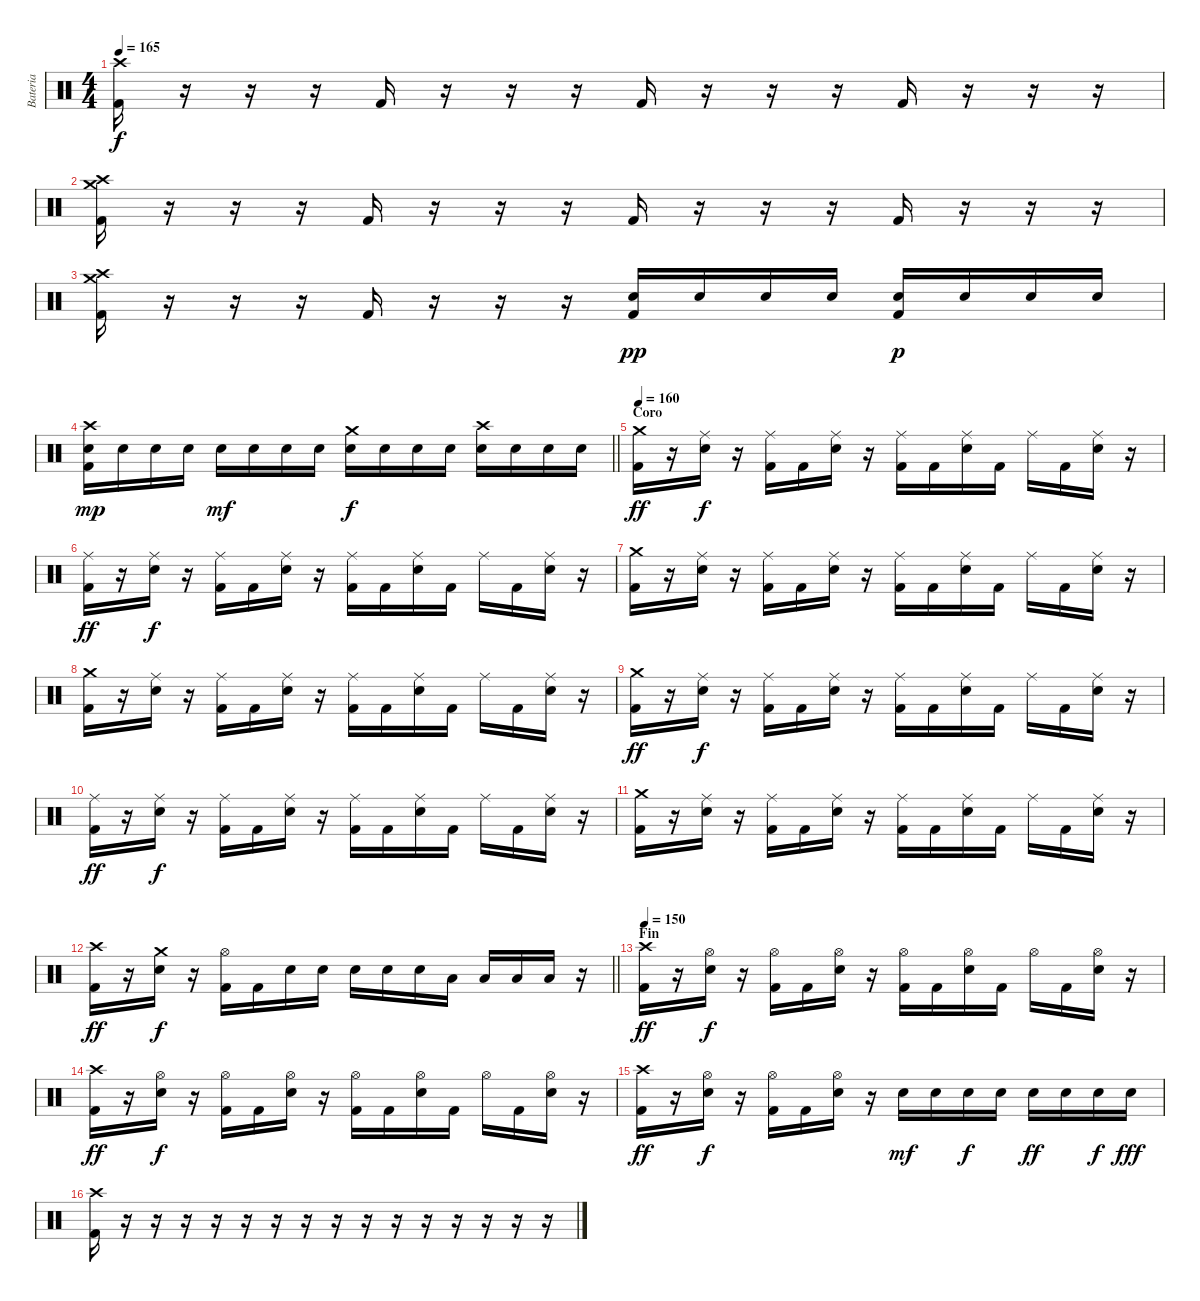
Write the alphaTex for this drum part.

\track ("Bateria" "Bateria") {instrument percussion}
\staff {score}
\articulation defaults
\ts (4 4)
\tempo 165
\clef neutral
\ks c
("Crash high (hit)" "Kick (hit) 2").16{dy f} r.16 r.16 r.16 "Kick (hit) 2".16 r.16 r.16 r.16 "Kick (hit) 2".16 r.16 r.16 r.16 "Kick (hit) 2".16 r.16 r.16 r.16 |
("Crash high (hit)" "Crash medium (hit)" "Kick (hit) 2").16 r.16 r.16 r.16 "Kick (hit) 2".16 r.16 r.16 r.16 "Kick (hit) 2".16 r.16 r.16 r.16 "Kick (hit) 2".16 r.16 r.16 r.16 |
("Crash high (hit)" "Crash medium (hit)" "Kick (hit) 2").16 r.16 r.16 r.16 "Kick (hit) 2".16 r.16 r.16 r.16 ("Electric Snare (hit)" "Kick (hit) 2").16{dy pp} "Electric Snare (hit)".16 "Electric Snare (hit)".16 "Electric Snare (hit)".16 ("Electric Snare (hit)" "Kick (hit) 2").16{dy p} "Electric Snare (hit)".16 "Electric Snare (hit)".16 "Electric Snare (hit)".16 |
\barLineRight lightlight
("Crash high (hit)" "Electric Snare (hit)" "Kick (hit) 2").16{dy mp} "Electric Snare (hit)".16 "Electric Snare (hit)".16 "Electric Snare (hit)".16 "Electric Snare (hit)".16{dy mf} "Electric Snare (hit)".16 "Electric Snare (hit)".16 "Electric Snare (hit)".16 ("Crash medium (hit)" "Electric Snare (hit)").16{dy f} "Electric Snare (hit)".16 "Electric Snare (hit)".16 "Electric Snare (hit)".16 ("Crash high (hit)" "Electric Snare (hit)").16 "Electric Snare (hit)".16 "Electric Snare (hit)".16 "Electric Snare (hit)".16 |
\section ("" "Coro")
\tempo 160
("Crash medium (hit)" "Kick (hit) 2").16{dy ff} r.16 ("Ride (middle)" "Electric Snare (hit)").16{dy f} r.16 ("Ride (middle)" "Kick (hit) 2").16 "Kick (hit) 2".16 ("Ride (middle)" "Electric Snare (hit)").16 r.16 ("Ride (middle)" "Kick (hit) 2").16 "Kick (hit) 2".16 ("Ride (middle)" "Electric Snare (hit)").16 "Kick (hit) 2".16 "Ride (middle)".16 "Kick (hit) 2".16 ("Ride (middle)" "Electric Snare (hit)").16 r.16 |
("Ride (middle)" "Kick (hit) 2").16{dy ff} r.16 ("Ride (middle)" "Electric Snare (hit)").16{dy f} r.16 ("Ride (middle)" "Kick (hit) 2").16 "Kick (hit) 2".16 ("Ride (middle)" "Electric Snare (hit)").16 r.16 ("Ride (middle)" "Kick (hit) 2").16 "Kick (hit) 2".16 ("Ride (middle)" "Electric Snare (hit)").16 "Kick (hit) 2".16 "Ride (middle)".16 "Kick (hit) 2".16 ("Ride (middle)" "Electric Snare (hit)").16 r.16 |
("Crash medium (hit)" "Kick (hit) 2").16 r.16 ("Ride (middle)" "Electric Snare (hit)").16 r.16 ("Ride (middle)" "Kick (hit) 2").16 "Kick (hit) 2".16 ("Ride (middle)" "Electric Snare (hit)").16 r.16 ("Ride (middle)" "Kick (hit) 2").16 "Kick (hit) 2".16 ("Ride (middle)" "Electric Snare (hit)").16 "Kick (hit) 2".16 "Ride (middle)".16 "Kick (hit) 2".16 ("Ride (middle)" "Electric Snare (hit)").16 r.16 |
("Crash medium (hit)" "Kick (hit) 2").16 r.16 ("Ride (middle)" "Electric Snare (hit)").16 r.16 ("Ride (middle)" "Kick (hit) 2").16 "Kick (hit) 2".16 ("Ride (middle)" "Electric Snare (hit)").16 r.16 ("Ride (middle)" "Kick (hit) 2").16 "Kick (hit) 2".16 ("Ride (middle)" "Electric Snare (hit)").16 "Kick (hit) 2".16 "Ride (middle)".16 "Kick (hit) 2".16 ("Ride (middle)" "Electric Snare (hit)").16 r.16 |
("Crash medium (hit)" "Kick (hit) 2").16{dy ff} r.16 ("Ride (middle)" "Electric Snare (hit)").16{dy f} r.16 ("Ride (middle)" "Kick (hit) 2").16 "Kick (hit) 2".16 ("Ride (middle)" "Electric Snare (hit)").16 r.16 ("Ride (middle)" "Kick (hit) 2").16 "Kick (hit) 2".16 ("Ride (middle)" "Electric Snare (hit)").16 "Kick (hit) 2".16 "Ride (middle)".16 "Kick (hit) 2".16 ("Ride (middle)" "Electric Snare (hit)").16 r.16 |
("Ride (middle)" "Kick (hit) 2").16{dy ff} r.16 ("Ride (middle)" "Electric Snare (hit)").16{dy f} r.16 ("Ride (middle)" "Kick (hit) 2").16 "Kick (hit) 2".16 ("Ride (middle)" "Electric Snare (hit)").16 r.16 ("Ride (middle)" "Kick (hit) 2").16 "Kick (hit) 2".16 ("Ride (middle)" "Electric Snare (hit)").16 "Kick (hit) 2".16 "Ride (middle)".16 "Kick (hit) 2".16 ("Ride (middle)" "Electric Snare (hit)").16 r.16 |
("Crash medium (hit)" "Kick (hit) 2").16 r.16 ("Ride (middle)" "Electric Snare (hit)").16 r.16 ("Ride (middle)" "Kick (hit) 2").16 "Kick (hit) 2".16 ("Ride (middle)" "Electric Snare (hit)").16 r.16 ("Ride (middle)" "Kick (hit) 2").16 "Kick (hit) 2".16 ("Ride (middle)" "Electric Snare (hit)").16 "Kick (hit) 2".16 "Ride (middle)".16 "Kick (hit) 2".16 ("Ride (middle)" "Electric Snare (hit)").16 r.16 |
\barLineRight lightlight
("Crash high (hit)" "Kick (hit) 2").16{dy ff} r.16 ("Crash medium (hit)" "Electric Snare (hit)").16{dy f} r.16 ("Hi-Hat (open)" "Kick (hit) 2").16 "Kick (hit) 2".16 "Electric Snare (hit)".16 "Electric Snare (hit)".16 "Electric Snare (hit)".16 "Electric Snare (hit)".16 "Electric Snare (hit)".16 "Low Tom (hit)".16 "Low Tom (hit)".16 "Low Floor Tom (hit)".16 "Low Floor Tom (hit)".16 r.16 |
\section ("" "Fin")
\tempo 150
("Crash high (hit)" "Kick (hit) 2").16{dy ff} r.16 ("Hi-Hat (open)" "Electric Snare (hit)").16{dy f} r.16 ("Hi-Hat (open)" "Kick (hit) 2").16 "Kick (hit) 2".16 ("Hi-Hat (open)" "Electric Snare (hit)").16 r.16 ("Hi-Hat (open)" "Kick (hit) 2").16 "Kick (hit) 2".16 ("Hi-Hat (open)" "Electric Snare (hit)").16 "Kick (hit) 2".16 "Hi-Hat (open)".16 "Kick (hit) 2".16 ("Hi-Hat (open)" "Electric Snare (hit)").16 r.16 |
("Crash high (hit)" "Kick (hit) 2").16{dy ff} r.16 ("Hi-Hat (open)" "Electric Snare (hit)").16{dy f} r.16 ("Hi-Hat (open)" "Kick (hit) 2").16 "Kick (hit) 2".16 ("Hi-Hat (open)" "Electric Snare (hit)").16 r.16 ("Hi-Hat (open)" "Kick (hit) 2").16 "Kick (hit) 2".16 ("Hi-Hat (open)" "Electric Snare (hit)").16 "Kick (hit) 2".16 "Hi-Hat (open)".16 "Kick (hit) 2".16 ("Hi-Hat (open)" "Electric Snare (hit)").16 r.16 |
("Crash high (hit)" "Kick (hit) 2").16{dy ff} r.16 ("Hi-Hat (open)" "Electric Snare (hit)").16{dy f} r.16 ("Hi-Hat (open)" "Kick (hit) 2").16 "Kick (hit) 2".16 ("Hi-Hat (open)" "Electric Snare (hit)").16 r.16 "Electric Snare (hit)".16{dy mf} "Electric Snare (hit)".16 "Electric Snare (hit)".16{dy f} "Electric Snare (hit)".16 "Electric Snare (hit)".16{dy ff} "Electric Snare (hit)".16 "Electric Snare (hit)".16{dy f} "Electric Snare (hit)".16{dy fff} |
("Crash high (hit)" "Kick (hit) 2").16 r.16 r.16 r.16 r.16 r.16 r.16 r.16 r.16 r.16 r.16 r.16 r.16 r.16 r.16 r.16
